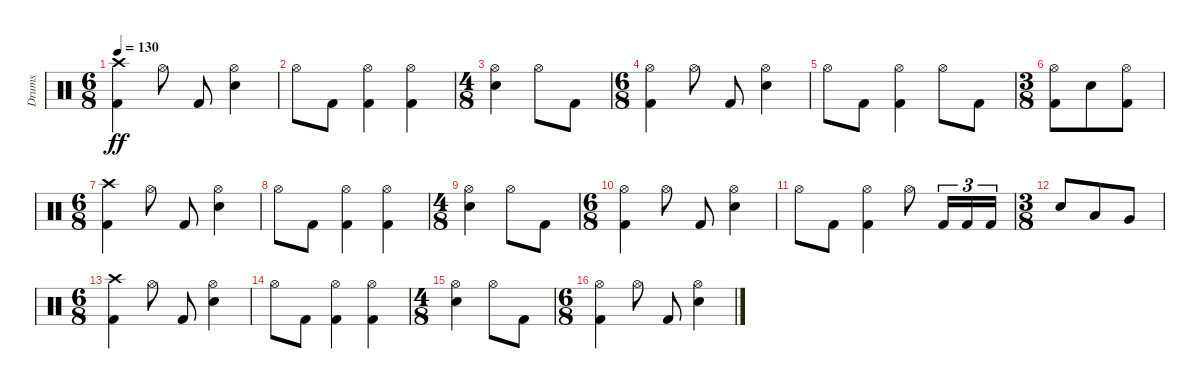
\track ("Drums" "Drums") {instrument percussion}
\staff {score}
\articulation defaults
\ts (6 8)
\tempo 130
\clef neutral
\ks c
("Kick (hit) 2" "Crash high (hit)").4{dy ff} "Hi-Hat (open)".8 "Kick (hit) 2".8 ("Hi-Hat (open)" "Snare (hit) 2").4 |
"Hi-Hat (open)".8 "Kick (hit) 2".8 ("Hi-Hat (open)" "Kick (hit) 2").4 ("Kick (hit) 2" "Hi-Hat (open)").4 |
\ts (4 8)
("Hi-Hat (open)" "Snare (hit) 2").4 "Hi-Hat (open)".8 "Kick (hit) 2".8 |
\ts (6 8)
("Kick (hit) 2" "Hi-Hat (open)").4 "Hi-Hat (open)".8 "Kick (hit) 2".8 ("Hi-Hat (open)" "Snare (hit) 2").4 |
"Hi-Hat (open)".8 "Kick (hit) 2".8 ("Hi-Hat (open)" "Kick (hit) 2").4 "Hi-Hat (open)".8 "Kick (hit) 2".8 |
\ts (3 8)
("Kick (hit) 2" "Hi-Hat (open)").8 "Snare (hit) 2".8 ("Hi-Hat (open)" "Kick (hit) 2").8 |
\ts (6 8)
("Kick (hit) 2" "Crash high (hit)").4 "Hi-Hat (open)".8 "Kick (hit) 2".8 ("Hi-Hat (open)" "Snare (hit) 2").4 |
"Hi-Hat (open)".8 "Kick (hit) 2".8 ("Hi-Hat (open)" "Kick (hit) 2").4 ("Kick (hit) 2" "Hi-Hat (open)").4 |
\ts (4 8)
("Hi-Hat (open)" "Snare (hit) 2").4 "Hi-Hat (open)".8 "Kick (hit) 2".8 |
\ts (6 8)
("Kick (hit) 2" "Hi-Hat (open)").4 "Hi-Hat (open)".8 "Kick (hit) 2".8 ("Hi-Hat (open)" "Snare (hit) 2").4 |
"Hi-Hat (open)".8 "Kick (hit) 2".8 ("Hi-Hat (open)" "Kick (hit) 2").4 "Hi-Hat (open)".8 "Kick (hit) 2".16{tu (3 2)} "Kick (hit) 2".16{tu (3 2)} "Kick (hit) 2".16{tu (3 2)} |
\ts (3 8)
"Snare (hit) 2".8 "Low Tom (hit)".8 "Very Low Tom (hit)".8 |
\ts (6 8)
("Kick (hit) 2" "Crash high (hit)").4 "Hi-Hat (open)".8 "Kick (hit) 2".8 ("Hi-Hat (open)" "Snare (hit) 2").4 |
"Hi-Hat (open)".8 "Kick (hit) 2".8 ("Hi-Hat (open)" "Kick (hit) 2").4 ("Kick (hit) 2" "Hi-Hat (open)").4 |
\ts (4 8)
("Hi-Hat (open)" "Snare (hit) 2").4 "Hi-Hat (open)".8 "Kick (hit) 2".8 |
\ts (6 8)
("Kick (hit) 2" "Hi-Hat (open)").4 "Hi-Hat (open)".8 "Kick (hit) 2".8 ("Hi-Hat (open)" "Snare (hit) 2").4
